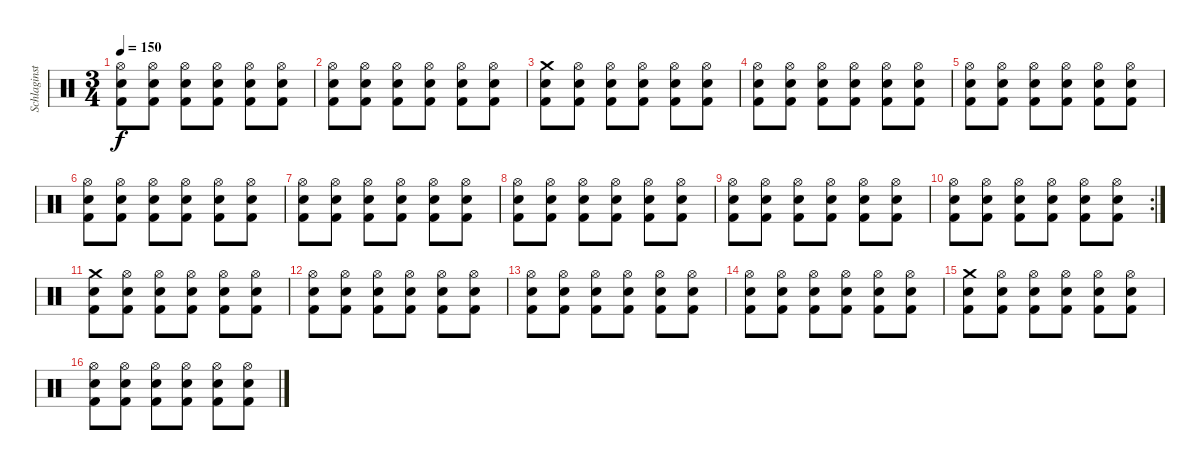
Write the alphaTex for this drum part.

\track ("Schlaginstrumente - Auswahl" "Schlaginst") {instrument percussion}
\staff {score}
\articulation defaults
\ts (3 4)
\tempo 150
\clef neutral
\ks c
("Hi-Hat (open)" "Electric Snare (hit)" "Kick (hit) 2").8{dy f} ("Hi-Hat (open)" "Electric Snare (hit)" "Kick (hit) 2").8 ("Hi-Hat (open)" "Electric Snare (hit)" "Kick (hit) 2").8 ("Hi-Hat (open)" "Electric Snare (hit)" "Kick (hit) 2").8 ("Hi-Hat (open)" "Electric Snare (hit)" "Kick (hit) 2").8 ("Hi-Hat (open)" "Electric Snare (hit)" "Kick (hit) 2").8 |
("Hi-Hat (open)" "Electric Snare (hit)" "Kick (hit) 2").8 ("Hi-Hat (open)" "Electric Snare (hit)" "Kick (hit) 2").8 ("Hi-Hat (open)" "Electric Snare (hit)" "Kick (hit) 2").8 ("Hi-Hat (open)" "Electric Snare (hit)" "Kick (hit) 2").8 ("Hi-Hat (open)" "Electric Snare (hit)" "Kick (hit) 2").8 ("Hi-Hat (open)" "Electric Snare (hit)" "Kick (hit) 2").8 |
("Crash medium (hit)" "Electric Snare (hit)" "Kick (hit) 2").8 ("Hi-Hat (open)" "Electric Snare (hit)" "Kick (hit) 2").8 ("Hi-Hat (open)" "Electric Snare (hit)" "Kick (hit) 2").8 ("Hi-Hat (open)" "Electric Snare (hit)" "Kick (hit) 2").8 ("Hi-Hat (open)" "Electric Snare (hit)" "Kick (hit) 2").8 ("Hi-Hat (open)" "Electric Snare (hit)" "Kick (hit) 2").8 |
("Hi-Hat (open)" "Electric Snare (hit)" "Kick (hit) 2").8 ("Hi-Hat (open)" "Electric Snare (hit)" "Kick (hit) 2").8 ("Hi-Hat (open)" "Electric Snare (hit)" "Kick (hit) 2").8 ("Hi-Hat (open)" "Electric Snare (hit)" "Kick (hit) 2").8 ("Hi-Hat (open)" "Electric Snare (hit)" "Kick (hit) 2").8 ("Hi-Hat (open)" "Electric Snare (hit)" "Kick (hit) 2").8 |
("Hi-Hat (open)" "Electric Snare (hit)" "Kick (hit) 2").8 ("Hi-Hat (open)" "Electric Snare (hit)" "Kick (hit) 2").8 ("Hi-Hat (open)" "Electric Snare (hit)" "Kick (hit) 2").8 ("Hi-Hat (open)" "Electric Snare (hit)" "Kick (hit) 2").8 ("Hi-Hat (open)" "Electric Snare (hit)" "Kick (hit) 2").8 ("Hi-Hat (open)" "Electric Snare (hit)" "Kick (hit) 2").8 |
("Hi-Hat (open)" "Electric Snare (hit)" "Kick (hit) 2").8 ("Hi-Hat (open)" "Electric Snare (hit)" "Kick (hit) 2").8 ("Hi-Hat (open)" "Electric Snare (hit)" "Kick (hit) 2").8 ("Hi-Hat (open)" "Electric Snare (hit)" "Kick (hit) 2").8 ("Hi-Hat (open)" "Electric Snare (hit)" "Kick (hit) 2").8 ("Hi-Hat (open)" "Electric Snare (hit)" "Kick (hit) 2").8 |
("Hi-Hat (open)" "Electric Snare (hit)" "Kick (hit) 2").8 ("Hi-Hat (open)" "Electric Snare (hit)" "Kick (hit) 2").8 ("Hi-Hat (open)" "Electric Snare (hit)" "Kick (hit) 2").8 ("Hi-Hat (open)" "Electric Snare (hit)" "Kick (hit) 2").8 ("Hi-Hat (open)" "Electric Snare (hit)" "Kick (hit) 2").8 ("Hi-Hat (open)" "Electric Snare (hit)" "Kick (hit) 2").8 |
("Hi-Hat (open)" "Electric Snare (hit)" "Kick (hit) 2").8 ("Hi-Hat (open)" "Electric Snare (hit)" "Kick (hit) 2").8 ("Hi-Hat (open)" "Electric Snare (hit)" "Kick (hit) 2").8 ("Hi-Hat (open)" "Electric Snare (hit)" "Kick (hit) 2").8 ("Hi-Hat (open)" "Electric Snare (hit)" "Kick (hit) 2").8 ("Hi-Hat (open)" "Electric Snare (hit)" "Kick (hit) 2").8 |
("Hi-Hat (open)" "Electric Snare (hit)" "Kick (hit) 2").8 ("Hi-Hat (open)" "Electric Snare (hit)" "Kick (hit) 2").8 ("Hi-Hat (open)" "Electric Snare (hit)" "Kick (hit) 2").8 ("Hi-Hat (open)" "Electric Snare (hit)" "Kick (hit) 2").8 ("Hi-Hat (open)" "Electric Snare (hit)" "Kick (hit) 2").8 ("Hi-Hat (open)" "Electric Snare (hit)" "Kick (hit) 2").8 |
\rc 2
("Hi-Hat (open)" "Electric Snare (hit)" "Kick (hit) 2").8 ("Hi-Hat (open)" "Electric Snare (hit)" "Kick (hit) 2").8 ("Hi-Hat (open)" "Electric Snare (hit)" "Kick (hit) 2").8 ("Hi-Hat (open)" "Electric Snare (hit)" "Kick (hit) 2").8 ("Hi-Hat (open)" "Electric Snare (hit)" "Kick (hit) 2").8 ("Hi-Hat (open)" "Electric Snare (hit)" "Kick (hit) 2").8 |
("Crash medium (hit)" "Electric Snare (hit)" "Kick (hit) 2").8 ("Hi-Hat (open)" "Electric Snare (hit)" "Kick (hit) 2").8 ("Hi-Hat (open)" "Electric Snare (hit)" "Kick (hit) 2").8 ("Hi-Hat (open)" "Electric Snare (hit)" "Kick (hit) 2").8 ("Hi-Hat (open)" "Electric Snare (hit)" "Kick (hit) 2").8 ("Hi-Hat (open)" "Electric Snare (hit)" "Kick (hit) 2").8 |
("Hi-Hat (open)" "Electric Snare (hit)" "Kick (hit) 2").8 ("Hi-Hat (open)" "Electric Snare (hit)" "Kick (hit) 2").8 ("Hi-Hat (open)" "Electric Snare (hit)" "Kick (hit) 2").8 ("Hi-Hat (open)" "Electric Snare (hit)" "Kick (hit) 2").8 ("Hi-Hat (open)" "Electric Snare (hit)" "Kick (hit) 2").8 ("Hi-Hat (open)" "Electric Snare (hit)" "Kick (hit) 2").8 |
("Hi-Hat (open)" "Electric Snare (hit)" "Kick (hit) 2").8 ("Hi-Hat (open)" "Electric Snare (hit)" "Kick (hit) 2").8 ("Hi-Hat (open)" "Electric Snare (hit)" "Kick (hit) 2").8 ("Hi-Hat (open)" "Electric Snare (hit)" "Kick (hit) 2").8 ("Hi-Hat (open)" "Electric Snare (hit)" "Kick (hit) 2").8 ("Hi-Hat (open)" "Electric Snare (hit)" "Kick (hit) 2").8 |
("Hi-Hat (open)" "Electric Snare (hit)" "Kick (hit) 2").8 ("Hi-Hat (open)" "Electric Snare (hit)" "Kick (hit) 2").8 ("Hi-Hat (open)" "Electric Snare (hit)" "Kick (hit) 2").8 ("Hi-Hat (open)" "Electric Snare (hit)" "Kick (hit) 2").8 ("Hi-Hat (open)" "Electric Snare (hit)" "Kick (hit) 2").8 ("Hi-Hat (open)" "Electric Snare (hit)" "Kick (hit) 2").8 |
("Crash medium (hit)" "Electric Snare (hit)" "Kick (hit) 2").8 ("Hi-Hat (open)" "Electric Snare (hit)" "Kick (hit) 2").8 ("Hi-Hat (open)" "Electric Snare (hit)" "Kick (hit) 2").8 ("Hi-Hat (open)" "Electric Snare (hit)" "Kick (hit) 2").8 ("Hi-Hat (open)" "Electric Snare (hit)" "Kick (hit) 2").8 ("Hi-Hat (open)" "Electric Snare (hit)" "Kick (hit) 2").8 |
("Hi-Hat (open)" "Electric Snare (hit)" "Kick (hit) 2").8 ("Hi-Hat (open)" "Electric Snare (hit)" "Kick (hit) 2").8 ("Hi-Hat (open)" "Electric Snare (hit)" "Kick (hit) 2").8 ("Hi-Hat (open)" "Electric Snare (hit)" "Kick (hit) 2").8 ("Hi-Hat (open)" "Electric Snare (hit)" "Kick (hit) 2").8 ("Hi-Hat (open)" "Electric Snare (hit)" "Kick (hit) 2").8
